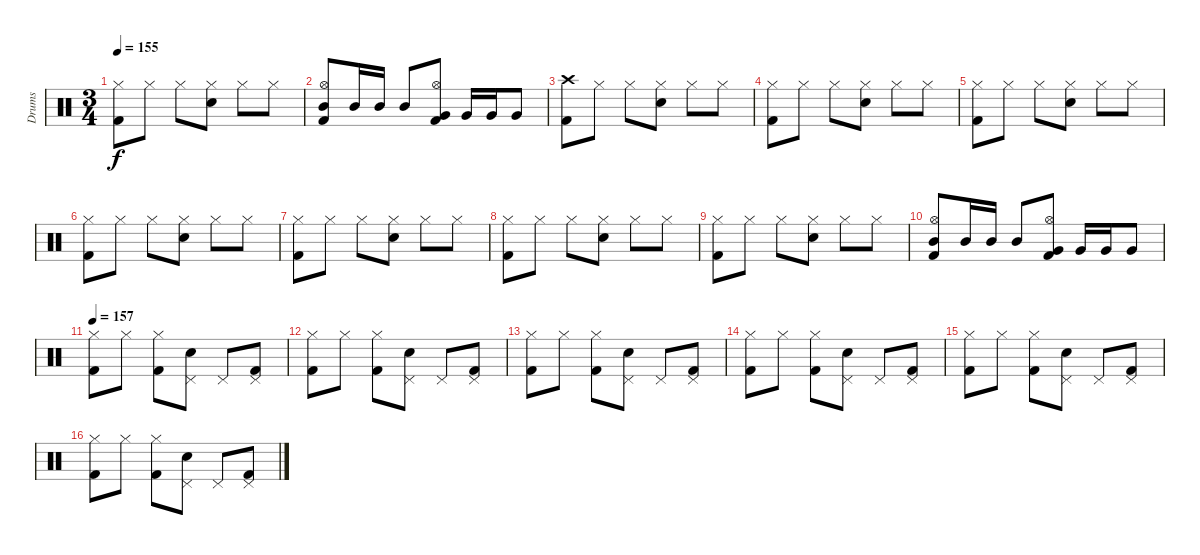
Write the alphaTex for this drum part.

\track ("Drums" "Drums") {instrument percussion}
\staff {score}
\articulation defaults
\ts (3 4)
\tempo 155
\clef neutral
\ks c
("Hi-Hat (closed)" "Kick (hit) 2").8{dy f} "Hi-Hat (closed)".8 "Hi-Hat (closed)".8 ("Hi-Hat (closed)" "Electric Snare (hit)").8 "Hi-Hat (closed)".8 "Hi-Hat (closed)".8 |
("Hi-Hat (open)" "Mid Tom (hit)" "Kick (hit) 2").8 "Mid Tom (hit)".16 "Mid Tom (hit)".16 "Mid Tom (hit)".8 ("Hi-Hat (open)" "Very Low Tom (hit)" "Kick (hit) 2").8 "Very Low Tom (hit)".16 "Very Low Tom (hit)".16 "Very Low Tom (hit)".8 |
("Crash high (hit)" "Kick (hit) 2").8 "Hi-Hat (closed)".8 "Hi-Hat (closed)".8 ("Hi-Hat (closed)" "Electric Snare (hit)").8 "Hi-Hat (closed)".8 "Hi-Hat (closed)".8 |
("Hi-Hat (closed)" "Kick (hit) 2").8 "Hi-Hat (closed)".8 "Hi-Hat (closed)".8 ("Hi-Hat (closed)" "Electric Snare (hit)").8 "Hi-Hat (closed)".8 "Hi-Hat (closed)".8 |
("Hi-Hat (closed)" "Kick (hit) 2").8 "Hi-Hat (closed)".8 "Hi-Hat (closed)".8 ("Hi-Hat (closed)" "Electric Snare (hit)").8 "Hi-Hat (closed)".8 "Hi-Hat (closed)".8 |
("Hi-Hat (closed)" "Kick (hit) 2").8 "Hi-Hat (closed)".8 "Hi-Hat (closed)".8 ("Hi-Hat (closed)" "Electric Snare (hit)").8 "Hi-Hat (closed)".8 "Hi-Hat (closed)".8 |
("Hi-Hat (closed)" "Kick (hit) 2").8 "Hi-Hat (closed)".8 "Hi-Hat (closed)".8 ("Hi-Hat (closed)" "Electric Snare (hit)").8 "Hi-Hat (closed)".8 "Hi-Hat (closed)".8 |
("Hi-Hat (closed)" "Kick (hit) 2").8 "Hi-Hat (closed)".8 "Hi-Hat (closed)".8 ("Hi-Hat (closed)" "Electric Snare (hit)").8 "Hi-Hat (closed)".8 "Hi-Hat (closed)".8 |
("Hi-Hat (closed)" "Kick (hit) 2").8 "Hi-Hat (closed)".8 "Hi-Hat (closed)".8 ("Hi-Hat (closed)" "Electric Snare (hit)").8 "Hi-Hat (closed)".8 "Hi-Hat (closed)".8 |
("Hi-Hat (open)" "Mid Tom (hit)" "Kick (hit) 2").8 "Mid Tom (hit)".16 "Mid Tom (hit)".16 "Mid Tom (hit)".8 ("Hi-Hat (open)" "Very Low Tom (hit)" "Kick (hit) 2").8 "Very Low Tom (hit)".16 "Very Low Tom (hit)".16 "Very Low Tom (hit)".8 |
\tempo 155
\tempo 157
("Hi-Hat (closed)" "Kick (hit) 2").8 "Hi-Hat (closed)".8 ("Hi-Hat (closed)" "Kick (hit) 2").8 ("Pedal Hi-Hat (hit)" "Electric Snare (hit)").8 "Pedal Hi-Hat (hit)".8 ("Pedal Hi-Hat (hit)" "Kick (hit) 2").8 |
("Hi-Hat (closed)" "Kick (hit) 2").8 "Hi-Hat (closed)".8 ("Hi-Hat (closed)" "Kick (hit) 2").8 ("Pedal Hi-Hat (hit)" "Electric Snare (hit)").8 "Pedal Hi-Hat (hit)".8 ("Pedal Hi-Hat (hit)" "Kick (hit) 2").8 |
("Hi-Hat (closed)" "Kick (hit) 2").8 "Hi-Hat (closed)".8 ("Hi-Hat (closed)" "Kick (hit) 2").8 ("Pedal Hi-Hat (hit)" "Electric Snare (hit)").8 "Pedal Hi-Hat (hit)".8 ("Pedal Hi-Hat (hit)" "Kick (hit) 2").8 |
("Hi-Hat (closed)" "Kick (hit) 2").8 "Hi-Hat (closed)".8 ("Hi-Hat (closed)" "Kick (hit) 2").8 ("Pedal Hi-Hat (hit)" "Electric Snare (hit)").8 "Pedal Hi-Hat (hit)".8 ("Pedal Hi-Hat (hit)" "Kick (hit) 2").8 |
("Hi-Hat (closed)" "Kick (hit) 2").8 "Hi-Hat (closed)".8 ("Hi-Hat (closed)" "Kick (hit) 2").8 ("Pedal Hi-Hat (hit)" "Electric Snare (hit)").8 "Pedal Hi-Hat (hit)".8 ("Pedal Hi-Hat (hit)" "Kick (hit) 2").8 |
("Hi-Hat (closed)" "Kick (hit) 2").8 "Hi-Hat (closed)".8 ("Hi-Hat (closed)" "Kick (hit) 2").8 ("Pedal Hi-Hat (hit)" "Electric Snare (hit)").8 "Pedal Hi-Hat (hit)".8 ("Pedal Hi-Hat (hit)" "Kick (hit) 2").8
